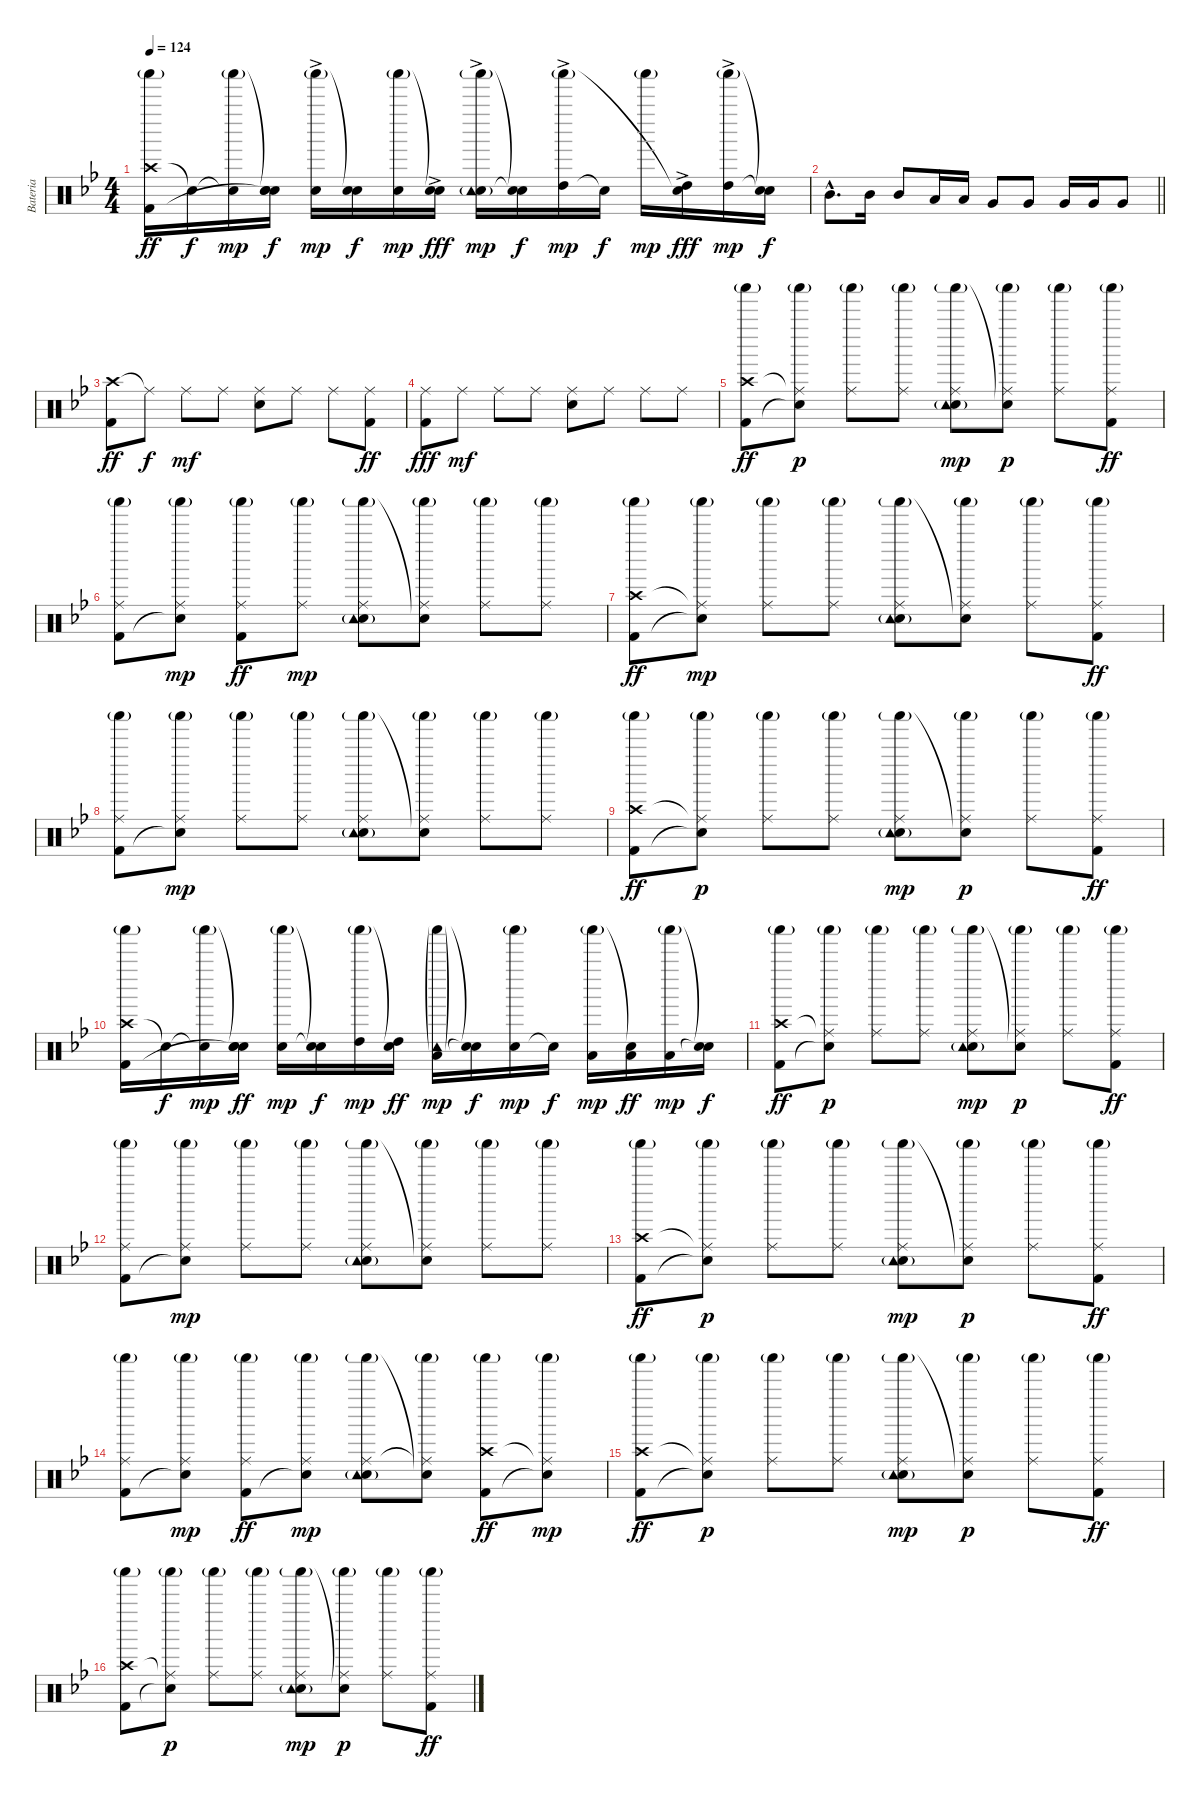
\track ("Bateria" "Bateria") {instrument percussion}
\staff {score}
\articulation defaults
\ts (4 4)
\tempo 124
\clef neutral
\ks bb
("Crash high (hit)" "Shaker (hit)"{g} "Kick (hit) 2").16{dy ff} "Snare (hit)"{t}.16{dy f} ("Snare (hit)"{t} "Shaker (hit)"{g}).16{dy mp} ("Electric Snare (hit)" "Snare (hit)"{t} "Snare (hit)"{t}).16{dy f} ("Electric Snare (hit)"{ac} "Shaker (hit)"{g}).16{dy mp} ("Electric Snare (hit)" "Snare (hit)"{t}).16{dy f} ("Electric Snare (hit)" "Shaker (hit)"{g}).16{dy mp} ("Electric Snare (hit)"{ac} "Snare (hit)"{t}).16{dy fff} ("Electric Snare (hit)"{ac} "Shaker (hit)"{g} "Tambourine (hit)"{g}).16{dy mp} ("Snare (hit)"{t} "Snare (hit)"{t}).16{dy f} ("High Tom (hit)"{ac} "Shaker (hit)"{g}).16{dy mp} "Snare (hit)"{t}.16{dy f} "Shaker (hit)"{g}.16{dy mp} ("High Tom (hit)"{ac} "Snare (hit)"{t}).16{dy fff} ("High Tom (hit)"{ac} "Shaker (hit)"{g}).16{dy mp} ("Snare (hit)"{t} "Snare (hit)"{t}).16{dy f} |
\barLineRight lightlight "Mid Tom (hit)"{hac}.8{d} "Mid Tom (hit)".16 "Mid Tom (hit)".8 "Low Tom (hit)".16 "Low Tom (hit)".16 "Very Low Tom (hit)".8 "Very Low Tom (hit)".8 "Very Low Tom (hit)".16 "Very Low Tom (hit)".16 "Very Low Tom (hit)".8
|
("Crash high (hit)" "Kick (hit) 2").8{dy ff} "Ride (middle)"{t}.8{dy f} "Ride (middle)".8{dy mf} "Ride (middle)".8 ("Ride (middle)" "Electric Snare (hit)").8 "Ride (middle)".8 "Ride (middle)".8 ("Ride (middle)" "Kick (hit) 2").8{dy ff} |
("Ride (middle)" "Kick (hit) 2").8{dy fff} "Ride (middle)".8{dy mf} "Ride (middle)".8 "Ride (middle)".8 ("Ride (middle)" "Electric Snare (hit)").8 "Ride (middle)".8 "Ride (middle)".8 "Ride (middle)".8 |
("Crash high (hit)" "Shaker (hit)"{g} "Kick (hit) 2").8{dy ff} ("Ride (middle)"{t} "Shaker (hit)"{g} "Snare (hit)"{t}).8{dy p} ("Ride (middle)" "Shaker (hit)"{g}).8 ("Ride (middle)" "Shaker (hit)"{g}).8 ("Ride (middle)" "Electric Snare (hit)" "Shaker (hit)"{g} "Tambourine (hit)"{g}).8{dy mp} ("Ride (middle)" "Shaker (hit)"{g} "Snare (hit)"{t}).8{dy p} ("Ride (middle)" "Shaker (hit)"{g}).8 ("Ride (middle)" "Shaker (hit)"{g} "Kick (hit) 2").8{dy ff} |
("Ride (middle)" "Shaker (hit)"{g} "Kick (hit) 2").8 ("Ride (middle)" "Shaker (hit)"{g} "Snare (hit)"{t}).8{dy mp} ("Ride (middle)" "Shaker (hit)"{g} "Kick (hit) 2").8{dy ff} ("Ride (middle)" "Shaker (hit)"{g}).8{dy mp} ("Ride (middle)" "Electric Snare (hit)" "Shaker (hit)"{g} "Tambourine (hit)"{g}).8 ("Ride (middle)" "Shaker (hit)"{g} "Snare (hit)"{t}).8 ("Ride (middle)" "Shaker (hit)"{g}).8 ("Ride (middle)" "Shaker (hit)"{g}).8 |
("Crash high (hit)" "Shaker (hit)"{g} "Kick (hit) 2").8{dy ff} ("Ride (middle)"{t} "Shaker (hit)"{g} "Snare (hit)"{t}).8{dy mp} ("Ride (middle)" "Shaker (hit)"{g}).8 ("Ride (middle)" "Shaker (hit)"{g}).8 ("Ride (middle)" "Electric Snare (hit)" "Shaker (hit)"{g} "Tambourine (hit)"{g}).8 ("Ride (middle)" "Shaker (hit)"{g} "Snare (hit)"{t}).8 ("Ride (middle)" "Shaker (hit)"{g}).8 ("Ride (middle)" "Shaker (hit)"{g} "Kick (hit) 2").8{dy ff} |
("Ride (middle)" "Shaker (hit)"{g} "Kick (hit) 2").8 ("Ride (middle)" "Shaker (hit)"{g} "Snare (hit)"{t}).8{dy mp} ("Ride (middle)" "Shaker (hit)"{g}).8 ("Ride (middle)" "Shaker (hit)"{g}).8 ("Ride (middle)" "Electric Snare (hit)" "Shaker (hit)"{g} "Tambourine (hit)"{g}).8 ("Ride (middle)" "Shaker (hit)"{g} "Snare (hit)"{t}).8 ("Ride (middle)" "Shaker (hit)"{g}).8 ("Ride (middle)" "Shaker (hit)"{g}).8 |
("Crash high (hit)" "Shaker (hit)"{g} "Kick (hit) 2").8{dy ff} ("Ride (middle)"{t} "Shaker (hit)"{g} "Snare (hit)"{t}).8{dy p} ("Ride (middle)" "Shaker (hit)"{g}).8 ("Ride (middle)" "Shaker (hit)"{g}).8 ("Ride (middle)" "Electric Snare (hit)" "Shaker (hit)"{g} "Tambourine (hit)"{g}).8{dy mp} ("Ride (middle)" "Shaker (hit)"{g} "Snare (hit)"{t}).8{dy p} ("Ride (middle)" "Shaker (hit)"{g}).8 ("Ride (middle)" "Shaker (hit)"{g} "Kick (hit) 2").8{dy ff} |
("Crash high (hit)" "Shaker (hit)"{g} "Kick (hit) 2").16 "Snare (hit)"{t}.16{dy f} ("Snare (hit)"{t} "Shaker (hit)"{g}).16{dy mp} ("Electric Snare (hit)" "Snare (hit)"{t} "Snare (hit)"{t}).16{dy ff} ("Electric Snare (hit)" "Shaker (hit)"{g}).16{dy mp} ("Electric Snare (hit)"{t} "Snare (hit)"{t}).16{dy f} ("High Tom (hit)" "Shaker (hit)"{g}).16{dy mp} ("High Tom (hit)" "Snare (hit)"{t}).16{dy ff} ("Low Tom (hit)" "Shaker (hit)"{g} "Tambourine (hit)"{g}).16{dy mp} ("Snare (hit)"{t} "Snare (hit)"{t}).16{dy f} ("Electric Snare (hit)" "Shaker (hit)"{g}).16{dy mp} "Snare (hit)"{t}.16{dy f} ("Low Tom (hit)" "Shaker (hit)"{g}).16{dy mp} ("Low Tom (hit)" "Snare (hit)"{t}).16{dy ff} ("Low Tom (hit)" "Shaker (hit)"{g}).16{dy mp} ("Snare (hit)"{t} "Snare (hit)"{t}).16{dy f} |
("Crash high (hit)" "Shaker (hit)"{g} "Kick (hit) 2").8{dy ff} ("Ride (middle)"{t} "Shaker (hit)"{g} "Snare (hit)"{t}).8{dy p} ("Ride (middle)" "Shaker (hit)"{g}).8 ("Ride (middle)" "Shaker (hit)"{g}).8 ("Ride (middle)" "Electric Snare (hit)" "Shaker (hit)"{g} "Tambourine (hit)"{g}).8{dy mp} ("Ride (middle)" "Shaker (hit)"{g} "Snare (hit)"{t}).8{dy p} ("Ride (middle)" "Shaker (hit)"{g}).8 ("Ride (middle)" "Shaker (hit)"{g} "Kick (hit) 2").8{dy ff} |
("Ride (middle)" "Shaker (hit)"{g} "Kick (hit) 2").8 ("Ride (middle)" "Shaker (hit)"{g} "Snare (hit)"{t}).8{dy mp} ("Ride (middle)" "Shaker (hit)"{g}).8 ("Ride (middle)" "Shaker (hit)"{g}).8 ("Ride (middle)" "Electric Snare (hit)" "Shaker (hit)"{g} "Tambourine (hit)"{g}).8 ("Ride (middle)" "Shaker (hit)"{g} "Snare (hit)"{t}).8 ("Ride (middle)" "Shaker (hit)"{g}).8 ("Ride (middle)" "Shaker (hit)"{g}).8 |
("Crash high (hit)" "Shaker (hit)"{g} "Kick (hit) 2").8{dy ff} ("Ride (middle)"{t} "Shaker (hit)"{g} "Snare (hit)"{t}).8{dy p} ("Ride (middle)" "Shaker (hit)"{g}).8 ("Ride (middle)" "Shaker (hit)"{g}).8 ("Ride (middle)" "Electric Snare (hit)" "Shaker (hit)"{g} "Tambourine (hit)"{g}).8{dy mp} ("Ride (middle)" "Shaker (hit)"{g} "Snare (hit)"{t}).8{dy p} ("Ride (middle)" "Shaker (hit)"{g}).8 ("Ride (middle)" "Shaker (hit)"{g} "Kick (hit) 2").8{dy ff} |
("Ride (middle)" "Shaker (hit)"{g} "Kick (hit) 2").8 ("Ride (middle)" "Shaker (hit)"{g} "Snare (hit)"{t}).8{dy mp} ("Ride (middle)" "Shaker (hit)"{g} "Kick (hit) 2").8{dy ff} ("Ride (middle)" "Shaker (hit)"{g} "Snare (hit)"{t}).8{dy mp} ("Ride (middle)" "Electric Snare (hit)" "Shaker (hit)"{g} "Tambourine (hit)"{g}).8 ("Ride (middle)"{t} "Shaker (hit)"{g} "Snare (hit)"{t}).8 ("Crash high (hit)" "Shaker (hit)"{g} "Kick (hit) 2").8{dy ff} ("Ride (middle)"{t} "Shaker (hit)"{g} "Snare (hit)"{t}).8{dy mp} |
("Crash high (hit)" "Shaker (hit)"{g} "Kick (hit) 2").8{dy ff} ("Ride (middle)"{t} "Shaker (hit)"{g} "Snare (hit)"{t}).8{dy p} ("Ride (middle)" "Shaker (hit)"{g}).8 ("Ride (middle)" "Shaker (hit)"{g}).8 ("Ride (middle)" "Electric Snare (hit)" "Shaker (hit)"{g} "Tambourine (hit)"{g}).8{dy mp} ("Ride (middle)" "Shaker (hit)"{g} "Snare (hit)"{t}).8{dy p} ("Ride (middle)" "Shaker (hit)"{g}).8 ("Ride (middle)" "Shaker (hit)"{g} "Kick (hit) 2").8{dy ff} |
("Crash high (hit)" "Shaker (hit)"{g} "Kick (hit) 2").8 ("Ride (middle)"{t} "Shaker (hit)"{g} "Snare (hit)"{t}).8{dy p} ("Ride (middle)" "Shaker (hit)"{g}).8 ("Ride (middle)" "Shaker (hit)"{g}).8 ("Ride (middle)" "Electric Snare (hit)" "Shaker (hit)"{g} "Tambourine (hit)"{g}).8{dy mp} ("Ride (middle)" "Shaker (hit)"{g} "Snare (hit)"{t}).8{dy p} ("Ride (middle)" "Shaker (hit)"{g}).8 ("Ride (middle)" "Shaker (hit)"{g} "Kick (hit) 2").8{dy ff}
